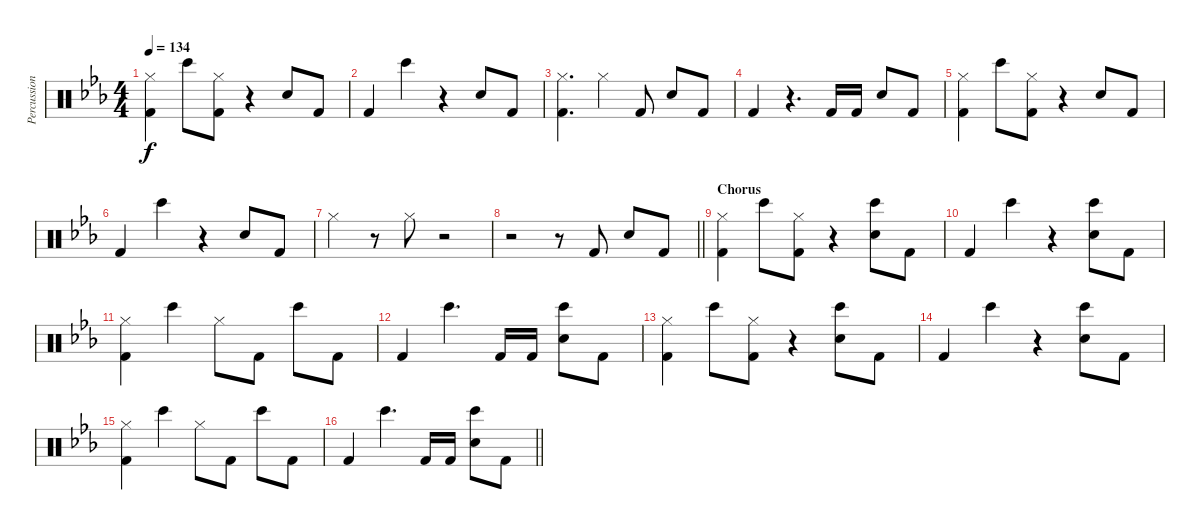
\track ("Percussion" "Percussion") {instrument percussion}
\staff {score}
\articulation defaults
\ts (4 4)
\tempo 134
\clef neutral
\ks eb
("Hi-Hat (closed)" "Kick (hit) 2").4{dy f} "Bongo High (hit)".8 ("Hi-Hat (closed)" "Kick (hit) 2").8 r.4 "Hand Clap (hit)".8 "Kick (hit) 2".8 |
"Kick (hit) 2".4 "Bongo High (hit)".4 r.4 "Hand Clap (hit)".8 "Kick (hit) 2".8 |
("Hi-Hat (closed)" "Kick (hit) 2").4{d} "Hi-Hat (closed)".4 "Kick (hit) 2".8 "Hand Clap (hit)".8 "Kick (hit) 2".8 |
"Kick (hit) 2".4 r.4{d} "Kick (hit) 2".16 "Kick (hit) 2".16 "Hand Clap (hit)".8 "Kick (hit) 2".8 |
("Hi-Hat (closed)" "Kick (hit) 2").4 "Bongo High (hit)".8 ("Hi-Hat (closed)" "Kick (hit) 2").8 r.4 "Hand Clap (hit)".8 "Kick (hit) 2".8 |
"Kick (hit) 2".4 "Bongo High (hit)".4 r.4 "Hand Clap (hit)".8 "Kick (hit) 2".8 |
"Hi-Hat (closed)".4 r.8 "Hi-Hat (closed)".8 r.2 |
\barLineRight lightlight
r.2 r.8 "Kick (hit) 2".8 "Hand Clap (hit)".8 "Kick (hit) 2".8 |
\section ("" "Chorus")
("Hi-Hat (closed)" "Kick (hit) 2").4 "Bongo High (hit)".8 ("Hi-Hat (closed)" "Kick (hit) 2").8 r.4 ("Hand Clap (hit)" "Bongo High (hit)").8 "Kick (hit) 2".8 |
"Kick (hit) 2".4 "Bongo High (hit)".4 r.4 ("Hand Clap (hit)" "Bongo High (hit)").8 "Kick (hit) 2".8 |
("Hi-Hat (closed)" "Kick (hit) 2").4 "Bongo High (hit)".4 "Hi-Hat (closed)".8 "Kick (hit) 2".8 "Bongo High (hit)".8 "Kick (hit) 2".8 |
"Kick (hit) 2".4 "Bongo High (hit)".4{d} "Kick (hit) 2".16 "Kick (hit) 2".16 ("Hand Clap (hit)" "Bongo High (hit)").8 "Kick (hit) 2".8 |
("Hi-Hat (closed)" "Kick (hit) 2").4 "Bongo High (hit)".8 ("Hi-Hat (closed)" "Kick (hit) 2").8 r.4 ("Hand Clap (hit)" "Bongo High (hit)").8 "Kick (hit) 2".8 |
"Kick (hit) 2".4 "Bongo High (hit)".4 r.4 ("Hand Clap (hit)" "Bongo High (hit)").8 "Kick (hit) 2".8 |
("Hi-Hat (closed)" "Kick (hit) 2").4 "Bongo High (hit)".4 "Hi-Hat (closed)".8 "Kick (hit) 2".8 "Bongo High (hit)".8 "Kick (hit) 2".8 |
\barLineRight lightlight "Kick (hit) 2".4 "Bongo High (hit)".4{d} "Kick (hit) 2".16 "Kick (hit) 2".16
("Hand Clap (hit)" "Bongo High (hit)").8 "Kick (hit) 2".8
